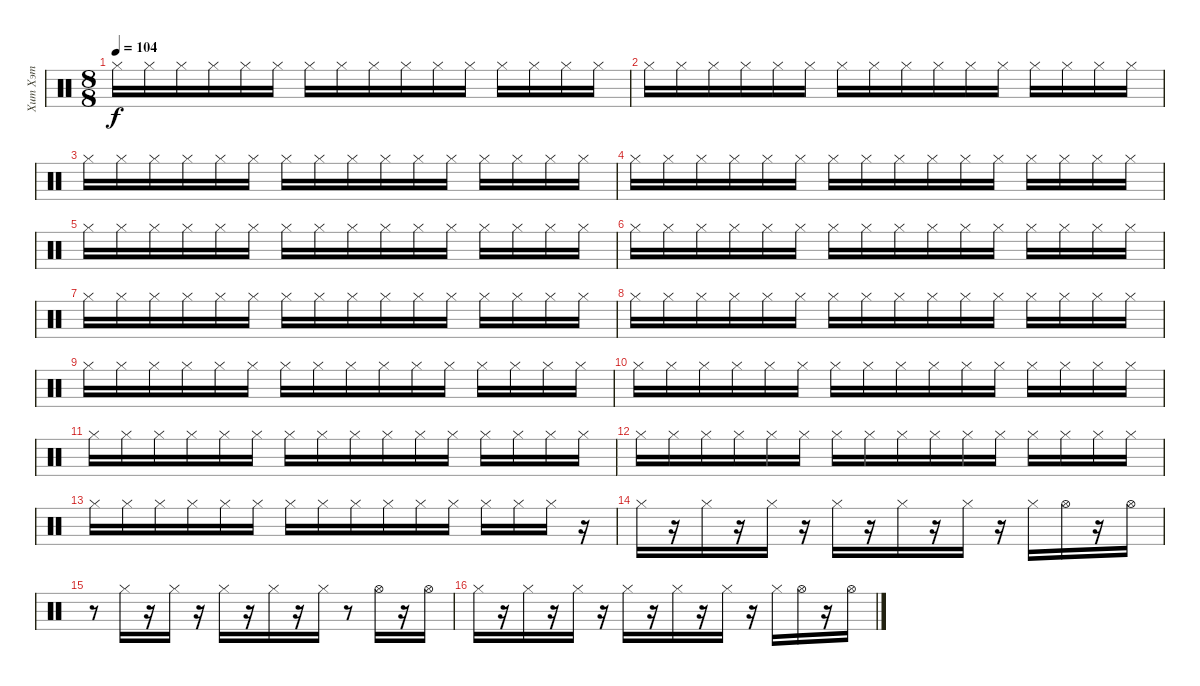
\track ("Хит Хэт" "Хит Хэт") {instrument percussion}
\staff {score}
\articulation defaults
\ts (8 8)
\tempo 104
\clef neutral
\ks c "Hi-Hat (closed)".16{dy f} "Hi-Hat (closed)".16 "Hi-Hat (closed)".16 "Hi-Hat (closed)".16 "Hi-Hat (closed)".16 "Hi-Hat (closed)".16 "Hi-Hat (closed)".16 "Hi-Hat (closed)".16 "Hi-Hat (closed)".16 "Hi-Hat (closed)".16 "Hi-Hat (closed)".16 "Hi-Hat (closed)".16 "Hi-Hat (closed)".16 "Hi-Hat (closed)".16 "Hi-Hat (closed)".16 "Hi-Hat (closed)".16
|
"Hi-Hat (closed)".16 "Hi-Hat (closed)".16 "Hi-Hat (closed)".16 "Hi-Hat (closed)".16 "Hi-Hat (closed)".16 "Hi-Hat (closed)".16 "Hi-Hat (closed)".16 "Hi-Hat (closed)".16 "Hi-Hat (closed)".16 "Hi-Hat (closed)".16 "Hi-Hat (closed)".16 "Hi-Hat (closed)".16 "Hi-Hat (closed)".16 "Hi-Hat (closed)".16 "Hi-Hat (closed)".16 "Hi-Hat (closed)".16 |
"Hi-Hat (closed)".16 "Hi-Hat (closed)".16 "Hi-Hat (closed)".16 "Hi-Hat (closed)".16 "Hi-Hat (closed)".16 "Hi-Hat (closed)".16 "Hi-Hat (closed)".16 "Hi-Hat (closed)".16 "Hi-Hat (closed)".16 "Hi-Hat (closed)".16 "Hi-Hat (closed)".16 "Hi-Hat (closed)".16 "Hi-Hat (closed)".16 "Hi-Hat (closed)".16 "Hi-Hat (closed)".16 "Hi-Hat (closed)".16 |
"Hi-Hat (closed)".16 "Hi-Hat (closed)".16 "Hi-Hat (closed)".16 "Hi-Hat (closed)".16 "Hi-Hat (closed)".16 "Hi-Hat (closed)".16 "Hi-Hat (closed)".16 "Hi-Hat (closed)".16 "Hi-Hat (closed)".16 "Hi-Hat (closed)".16 "Hi-Hat (closed)".16 "Hi-Hat (closed)".16 "Hi-Hat (closed)".16 "Hi-Hat (closed)".16 "Hi-Hat (closed)".16 "Hi-Hat (closed)".16 |
"Hi-Hat (closed)".16 "Hi-Hat (closed)".16 "Hi-Hat (closed)".16 "Hi-Hat (closed)".16 "Hi-Hat (closed)".16 "Hi-Hat (closed)".16 "Hi-Hat (closed)".16 "Hi-Hat (closed)".16 "Hi-Hat (closed)".16 "Hi-Hat (closed)".16 "Hi-Hat (closed)".16 "Hi-Hat (closed)".16 "Hi-Hat (closed)".16 "Hi-Hat (closed)".16 "Hi-Hat (closed)".16 "Hi-Hat (closed)".16 |
"Hi-Hat (closed)".16 "Hi-Hat (closed)".16 "Hi-Hat (closed)".16 "Hi-Hat (closed)".16 "Hi-Hat (closed)".16 "Hi-Hat (closed)".16 "Hi-Hat (closed)".16 "Hi-Hat (closed)".16 "Hi-Hat (closed)".16 "Hi-Hat (closed)".16 "Hi-Hat (closed)".16 "Hi-Hat (closed)".16 "Hi-Hat (closed)".16 "Hi-Hat (closed)".16 "Hi-Hat (closed)".16 "Hi-Hat (closed)".16 |
"Hi-Hat (closed)".16 "Hi-Hat (closed)".16 "Hi-Hat (closed)".16 "Hi-Hat (closed)".16 "Hi-Hat (closed)".16 "Hi-Hat (closed)".16 "Hi-Hat (closed)".16 "Hi-Hat (closed)".16 "Hi-Hat (closed)".16 "Hi-Hat (closed)".16 "Hi-Hat (closed)".16 "Hi-Hat (closed)".16 "Hi-Hat (closed)".16 "Hi-Hat (closed)".16 "Hi-Hat (closed)".16 "Hi-Hat (closed)".16 |
"Hi-Hat (closed)".16 "Hi-Hat (closed)".16 "Hi-Hat (closed)".16 "Hi-Hat (closed)".16 "Hi-Hat (closed)".16 "Hi-Hat (closed)".16 "Hi-Hat (closed)".16 "Hi-Hat (closed)".16 "Hi-Hat (closed)".16 "Hi-Hat (closed)".16 "Hi-Hat (closed)".16 "Hi-Hat (closed)".16 "Hi-Hat (closed)".16 "Hi-Hat (closed)".16 "Hi-Hat (closed)".16 "Hi-Hat (closed)".16 |
"Hi-Hat (closed)".16 "Hi-Hat (closed)".16 "Hi-Hat (closed)".16 "Hi-Hat (closed)".16 "Hi-Hat (closed)".16 "Hi-Hat (closed)".16 "Hi-Hat (closed)".16 "Hi-Hat (closed)".16 "Hi-Hat (closed)".16 "Hi-Hat (closed)".16 "Hi-Hat (closed)".16 "Hi-Hat (closed)".16 "Hi-Hat (closed)".16 "Hi-Hat (closed)".16 "Hi-Hat (closed)".16 "Hi-Hat (closed)".16 |
"Hi-Hat (closed)".16 "Hi-Hat (closed)".16 "Hi-Hat (closed)".16 "Hi-Hat (closed)".16 "Hi-Hat (closed)".16 "Hi-Hat (closed)".16 "Hi-Hat (closed)".16 "Hi-Hat (closed)".16 "Hi-Hat (closed)".16 "Hi-Hat (closed)".16 "Hi-Hat (closed)".16 "Hi-Hat (closed)".16 "Hi-Hat (closed)".16 "Hi-Hat (closed)".16 "Hi-Hat (closed)".16 "Hi-Hat (closed)".16 |
"Hi-Hat (closed)".16 "Hi-Hat (closed)".16 "Hi-Hat (closed)".16 "Hi-Hat (closed)".16 "Hi-Hat (closed)".16 "Hi-Hat (closed)".16 "Hi-Hat (closed)".16 "Hi-Hat (closed)".16 "Hi-Hat (closed)".16 "Hi-Hat (closed)".16 "Hi-Hat (closed)".16 "Hi-Hat (closed)".16 "Hi-Hat (closed)".16 "Hi-Hat (closed)".16 "Hi-Hat (closed)".16 "Hi-Hat (closed)".16 |
"Hi-Hat (closed)".16 "Hi-Hat (closed)".16 "Hi-Hat (closed)".16 "Hi-Hat (closed)".16 "Hi-Hat (closed)".16 "Hi-Hat (closed)".16 "Hi-Hat (closed)".16 "Hi-Hat (closed)".16 "Hi-Hat (closed)".16 "Hi-Hat (closed)".16 "Hi-Hat (closed)".16 "Hi-Hat (closed)".16 "Hi-Hat (closed)".16 "Hi-Hat (closed)".16 "Hi-Hat (closed)".16 "Hi-Hat (closed)".16 |
"Hi-Hat (closed)".16 "Hi-Hat (closed)".16 "Hi-Hat (closed)".16 "Hi-Hat (closed)".16 "Hi-Hat (closed)".16 "Hi-Hat (closed)".16 "Hi-Hat (closed)".16 "Hi-Hat (closed)".16 "Hi-Hat (closed)".16 "Hi-Hat (closed)".16 "Hi-Hat (closed)".16 "Hi-Hat (closed)".16 "Hi-Hat (closed)".16 "Hi-Hat (closed)".16 "Hi-Hat (closed)".16 r.16 |
"Hi-Hat (closed)".16 r.16 "Hi-Hat (closed)".16 r.16 "Hi-Hat (closed)".16 r.16 "Hi-Hat (closed)".16 r.16 "Hi-Hat (closed)".16 r.16 "Hi-Hat (closed)".16 r.16 "Hi-Hat (closed)".16 "Hi-Hat (open)".16 r.16 "Hi-Hat (open)".16 |
r.8 "Hi-Hat (closed)".16 r.16 "Hi-Hat (closed)".16 r.16 "Hi-Hat (closed)".16 r.16 "Hi-Hat (closed)".16 r.16 "Hi-Hat (closed)".16 r.8 "Hi-Hat (open)".16 r.16 "Hi-Hat (open)".16 |
"Hi-Hat (closed)".16 r.16 "Hi-Hat (closed)".16 r.16 "Hi-Hat (closed)".16 r.16 "Hi-Hat (closed)".16 r.16 "Hi-Hat (closed)".16 r.16 "Hi-Hat (closed)".16 r.16 "Hi-Hat (closed)".16 "Hi-Hat (open)".16 r.16 "Hi-Hat (open)".16
